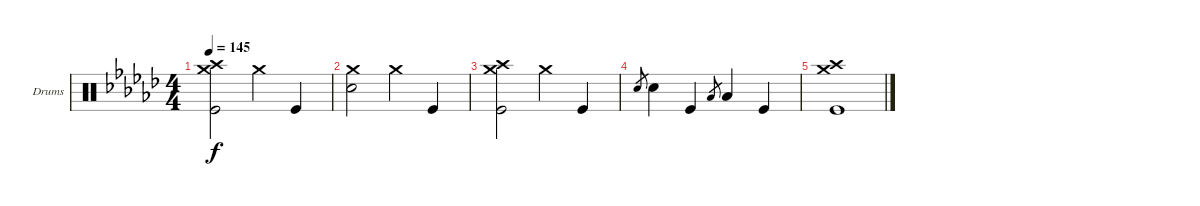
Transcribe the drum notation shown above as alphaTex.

\defaultSystemsLayout 4
\bracketExtendMode groupsimilarinstruments
\firstSystemTrackNameOrientation horizontal
\otherSystemsTrackNameOrientation horizontal
\track ("Drumkit" "Drums") {instrument percussion}
\staff {score}
\articulation defaults
\ts (4 4)
\tempo 145
\clef neutral
\ks ebminor
("Crash high (hit)" "Crash medium (hit)" "Kick (hit)").2{dy f} "Crash medium (hit)".4 "Kick (hit)".4 |
("Crash medium (hit)" "Snare (hit) 2").2 "Crash medium (hit)".4 "Kick (hit)".4 |
("Crash high (hit)" "Crash medium (hit)" "Kick (hit)").2 "Crash medium (hit)".4 "Kick (hit)".4 |
"Snare (hit) 2".8{gr} "Snare (hit) 2".4 "Kick (hit)".4 "Low Tom (hit)".8{gr} "Low Tom (hit)".4 "Kick (hit)".4 |
("Kick (hit)" "Crash high (hit)" "Crash medium (hit)").1
